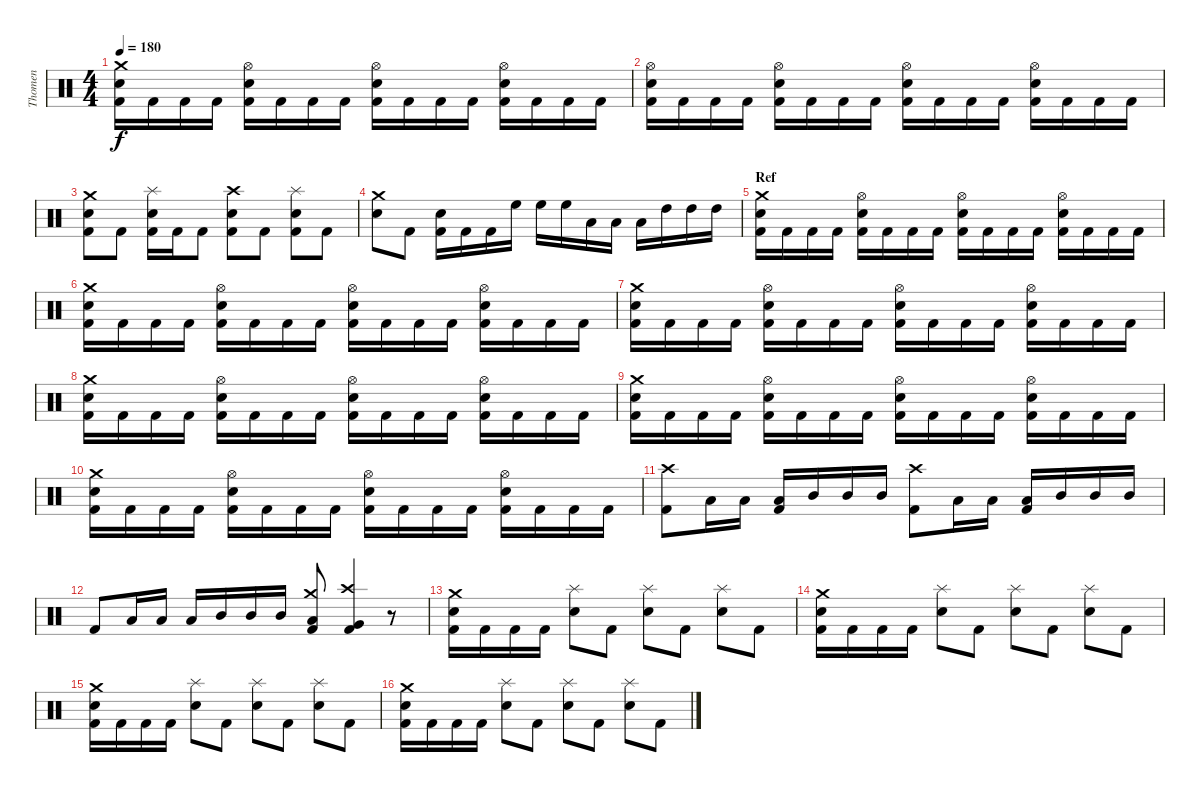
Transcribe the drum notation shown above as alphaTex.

\track ("Thomen" "Thomen") {instrument percussion}
\staff {score}
\articulation defaults
\ts (4 4)
\tempo 180
\clef neutral
\ks c
("Kick (hit) 2" "Electric Snare (hit)" "Crash medium (hit)").16{dy f} "Kick (hit) 2".16 "Kick (hit) 2".16 "Kick (hit) 2".16 ("Kick (hit) 2" "Electric Snare (hit)" "Hi-Hat (open)").16 "Kick (hit) 2".16 "Kick (hit) 2".16 "Kick (hit) 2".16 ("Kick (hit) 2" "Electric Snare (hit)" "Hi-Hat (open)").16 "Kick (hit) 2".16 "Kick (hit) 2".16 "Kick (hit) 2".16 ("Kick (hit) 2" "Electric Snare (hit)" "Hi-Hat (open)").16 "Kick (hit) 2".16 "Kick (hit) 2".16 "Kick (hit) 2".16 |
("Kick (hit) 2" "Electric Snare (hit)" "Hi-Hat (open)").16 "Kick (hit) 2".16 "Kick (hit) 2".16 "Kick (hit) 2".16 ("Kick (hit) 2" "Electric Snare (hit)" "Hi-Hat (open)").16 "Kick (hit) 2".16 "Kick (hit) 2".16 "Kick (hit) 2".16 ("Kick (hit) 2" "Electric Snare (hit)" "Hi-Hat (open)").16 "Kick (hit) 2".16 "Kick (hit) 2".16 "Kick (hit) 2".16 ("Kick (hit) 2" "Electric Snare (hit)" "Hi-Hat (open)").16 "Kick (hit) 2".16 "Kick (hit) 2".16 "Kick (hit) 2".16 |
("Kick (hit) 2" "Electric Snare (hit)" "Crash medium (hit)").8 "Kick (hit) 2".8 ("Kick (hit) 2" "Electric Snare (hit)" "Splash (hit)").16 "Kick (hit) 2".16 "Kick (hit) 2".8 ("Kick (hit) 2" "Electric Snare (hit)" "Crash high (hit)").8 "Kick (hit) 2".8 ("Kick (hit) 2" "Electric Snare (hit)" "Splash (hit)").8 "Kick (hit) 2".8 |
("Electric Snare (hit)" "Crash medium (hit)").8 "Kick (hit) 2".8 ("Kick (hit) 2" "Electric Snare (hit)").16 "Kick (hit) 2".16 "Kick (hit) 2".16 "High Floor Tom (hit)".16 "High Floor Tom (hit)".16 "High Floor Tom (hit)".16 "Low Tom (hit)".16 "Low Tom (hit)".16 "Low Tom (hit)".16 "High Tom (hit)".16 "High Tom (hit)".16 "High Tom (hit)".16 |
\section ("" "Ref")
("Kick (hit) 2" "Electric Snare (hit)" "Crash medium (hit)").16 "Kick (hit) 2".16 "Kick (hit) 2".16 "Kick (hit) 2".16 ("Kick (hit) 2" "Electric Snare (hit)" "Hi-Hat (open)").16 "Kick (hit) 2".16 "Kick (hit) 2".16 "Kick (hit) 2".16 ("Kick (hit) 2" "Electric Snare (hit)" "Hi-Hat (open)").16 "Kick (hit) 2".16 "Kick (hit) 2".16 "Kick (hit) 2".16 ("Kick (hit) 2" "Electric Snare (hit)" "Hi-Hat (open)").16 "Kick (hit) 2".16 "Kick (hit) 2".16 "Kick (hit) 2".16 |
("Kick (hit) 2" "Electric Snare (hit)" "Crash medium (hit)").16 "Kick (hit) 2".16 "Kick (hit) 2".16 "Kick (hit) 2".16 ("Kick (hit) 2" "Electric Snare (hit)" "Hi-Hat (open)").16 "Kick (hit) 2".16 "Kick (hit) 2".16 "Kick (hit) 2".16 ("Kick (hit) 2" "Electric Snare (hit)" "Hi-Hat (open)").16 "Kick (hit) 2".16 "Kick (hit) 2".16 "Kick (hit) 2".16 ("Kick (hit) 2" "Electric Snare (hit)" "Hi-Hat (open)").16 "Kick (hit) 2".16 "Kick (hit) 2".16 "Kick (hit) 2".16 |
("Kick (hit) 2" "Electric Snare (hit)" "Crash medium (hit)").16 "Kick (hit) 2".16 "Kick (hit) 2".16 "Kick (hit) 2".16 ("Kick (hit) 2" "Electric Snare (hit)" "Hi-Hat (open)").16 "Kick (hit) 2".16 "Kick (hit) 2".16 "Kick (hit) 2".16 ("Kick (hit) 2" "Electric Snare (hit)" "Hi-Hat (open)").16 "Kick (hit) 2".16 "Kick (hit) 2".16 "Kick (hit) 2".16 ("Kick (hit) 2" "Electric Snare (hit)" "Hi-Hat (open)").16 "Kick (hit) 2".16 "Kick (hit) 2".16 "Kick (hit) 2".16 |
("Kick (hit) 2" "Electric Snare (hit)" "Crash medium (hit)").16 "Kick (hit) 2".16 "Kick (hit) 2".16 "Kick (hit) 2".16 ("Kick (hit) 2" "Electric Snare (hit)" "Hi-Hat (open)").16 "Kick (hit) 2".16 "Kick (hit) 2".16 "Kick (hit) 2".16 ("Kick (hit) 2" "Electric Snare (hit)" "Hi-Hat (open)").16 "Kick (hit) 2".16 "Kick (hit) 2".16 "Kick (hit) 2".16 ("Kick (hit) 2" "Electric Snare (hit)" "Hi-Hat (open)").16 "Kick (hit) 2".16 "Kick (hit) 2".16 "Kick (hit) 2".16 |
("Kick (hit) 2" "Electric Snare (hit)" "Crash medium (hit)").16 "Kick (hit) 2".16 "Kick (hit) 2".16 "Kick (hit) 2".16 ("Kick (hit) 2" "Electric Snare (hit)" "Hi-Hat (open)").16 "Kick (hit) 2".16 "Kick (hit) 2".16 "Kick (hit) 2".16 ("Kick (hit) 2" "Electric Snare (hit)" "Hi-Hat (open)").16 "Kick (hit) 2".16 "Kick (hit) 2".16 "Kick (hit) 2".16 ("Kick (hit) 2" "Electric Snare (hit)" "Hi-Hat (open)").16 "Kick (hit) 2".16 "Kick (hit) 2".16 "Kick (hit) 2".16 |
("Kick (hit) 2" "Electric Snare (hit)" "Crash medium (hit)").16 "Kick (hit) 2".16 "Kick (hit) 2".16 "Kick (hit) 2".16 ("Kick (hit) 2" "Electric Snare (hit)" "Hi-Hat (open)").16 "Kick (hit) 2".16 "Kick (hit) 2".16 "Kick (hit) 2".16 ("Kick (hit) 2" "Electric Snare (hit)" "Hi-Hat (open)").16 "Kick (hit) 2".16 "Kick (hit) 2".16 "Kick (hit) 2".16 ("Kick (hit) 2" "Electric Snare (hit)" "Hi-Hat (open)").16 "Kick (hit) 2".16 "Kick (hit) 2".16 "Kick (hit) 2".16 |
("Kick (hit) 2" "Crash high (hit)").8 "Low Tom (hit)".16 "Low Tom (hit)".16 ("Kick (hit) 2" "Low Tom (hit)").16 "Mid Tom (hit)".16 "Mid Tom (hit)".16 "Mid Tom (hit)".16 ("Kick (hit) 2" "Crash high (hit)").8 "Low Tom (hit)".16 "Low Tom (hit)".16 ("Kick (hit) 2" "Low Tom (hit)").16 "Mid Tom (hit)".16 "Mid Tom (hit)".16 "Mid Tom (hit)".16 |
"Kick (hit) 2".8 "Low Tom (hit)".16 "Low Tom (hit)".16 "Low Tom (hit)".16 "Mid Tom (hit)".16 "Mid Tom (hit)".16 "Mid Tom (hit)".16 ("Kick (hit) 2" "Low Floor Tom (hit)" "Crash medium (hit)").8 ("Kick (hit) 2" "Very Low Tom (hit)" "Crash high (hit)").4 r.8 |
("Kick (hit) 2" "Electric Snare (hit)" "Crash medium (hit)").16 "Kick (hit) 2".16 "Kick (hit) 2".16 "Kick (hit) 2".16 ("Electric Snare (hit)" "Splash (hit)").8 "Kick (hit) 2".8 ("Electric Snare (hit)" "Splash (hit)").8 "Kick (hit) 2".8 ("Electric Snare (hit)" "Splash (hit)").8 "Kick (hit) 2".8 |
("Kick (hit) 2" "Electric Snare (hit)" "Crash medium (hit)").16 "Kick (hit) 2".16 "Kick (hit) 2".16 "Kick (hit) 2".16 ("Electric Snare (hit)" "Splash (hit)").8 "Kick (hit) 2".8 ("Electric Snare (hit)" "Splash (hit)").8 "Kick (hit) 2".8 ("Electric Snare (hit)" "Splash (hit)").8 "Kick (hit) 2".8 |
("Kick (hit) 2" "Electric Snare (hit)" "Crash medium (hit)").16 "Kick (hit) 2".16 "Kick (hit) 2".16 "Kick (hit) 2".16 ("Electric Snare (hit)" "Splash (hit)").8 "Kick (hit) 2".8 ("Electric Snare (hit)" "Splash (hit)").8 "Kick (hit) 2".8 ("Electric Snare (hit)" "Splash (hit)").8 "Kick (hit) 2".8 |
("Kick (hit) 2" "Electric Snare (hit)" "Crash medium (hit)").16 "Kick (hit) 2".16 "Kick (hit) 2".16 "Kick (hit) 2".16 ("Electric Snare (hit)" "Splash (hit)").8 "Kick (hit) 2".8 ("Electric Snare (hit)" "Splash (hit)").8 "Kick (hit) 2".8 ("Electric Snare (hit)" "Splash (hit)").8 "Kick (hit) 2".8
